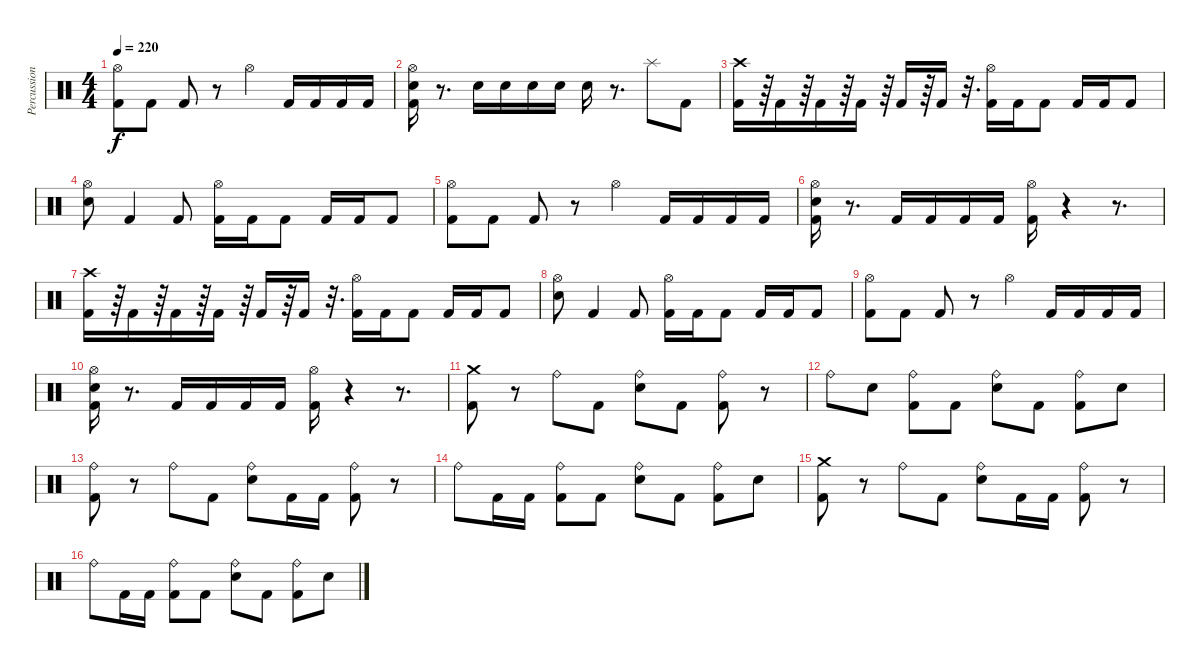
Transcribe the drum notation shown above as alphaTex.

\track ("Percussion (Dan Wilding)" "Percussion") {instrument percussion}
\staff {score}
\articulation defaults
\ts (4 4)
\tempo 220
\clef neutral
\ks c
("Hi-Hat (open)" "Kick (hit) 2").8{dy f} "Kick (hit) 2".8 "Kick (hit) 2".8 r.8 "Hi-Hat (open)".4 "Kick (hit) 2".16 "Kick (hit) 2".16 "Kick (hit) 2".16 "Kick (hit) 2".16 |
("Hi-Hat (open)" "Electric Snare (hit)" "Kick (hit) 2").16 r.8{d} "Electric Snare (hit)".16 "Electric Snare (hit)".16 "Electric Snare (hit)".16 "Electric Snare (hit)".16 "Electric Snare (hit)".16 r.8{d} "Splash (hit)".8 "Kick (hit) 2".8 |
("Crash high (hit)" "Kick (hit) 2").16 r.64 "Kick (hit) 2".16 r.64 "Kick (hit) 2".16 r.64 "Kick (hit) 2".16 r.64 "Kick (hit) 2".16 r.64 "Kick (hit) 2".16 r.32{d} ("Hi-Hat (open)" "Kick (hit) 2").16 "Kick (hit) 2".16 "Kick (hit) 2".8 "Kick (hit) 2".16 "Kick (hit) 2".16 "Kick (hit) 2".8 |
("Hi-Hat (open)" "Electric Snare (hit)").8 "Kick (hit) 2".4 "Kick (hit) 2".8 ("Hi-Hat (open)" "Kick (hit) 2").16 "Kick (hit) 2".16 "Kick (hit) 2".8 "Kick (hit) 2".16 "Kick (hit) 2".16 "Kick (hit) 2".8 |
("Hi-Hat (open)" "Kick (hit) 2").8 "Kick (hit) 2".8 "Kick (hit) 2".8 r.8 "Hi-Hat (open)".4 "Kick (hit) 2".16 "Kick (hit) 2".16 "Kick (hit) 2".16 "Kick (hit) 2".16 |
("Hi-Hat (open)" "Electric Snare (hit)" "Kick (hit) 2").16 r.8{d} "Kick (hit) 2".16 "Kick (hit) 2".16 "Kick (hit) 2".16 "Kick (hit) 2".16 ("Hi-Hat (open)" "Kick (hit) 2").16 r.4 r.8{d} |
("Crash high (hit)" "Kick (hit) 2").16 r.64 "Kick (hit) 2".16 r.64 "Kick (hit) 2".16 r.64 "Kick (hit) 2".16 r.64 "Kick (hit) 2".16 r.64 "Kick (hit) 2".16 r.32{d} ("Hi-Hat (open)" "Kick (hit) 2").16 "Kick (hit) 2".16 "Kick (hit) 2".8 "Kick (hit) 2".16 "Kick (hit) 2".16 "Kick (hit) 2".8 |
("Hi-Hat (open)" "Electric Snare (hit)").8 "Kick (hit) 2".4 "Kick (hit) 2".8 ("Hi-Hat (open)" "Kick (hit) 2").16 "Kick (hit) 2".16 "Kick (hit) 2".8 "Kick (hit) 2".16 "Kick (hit) 2".16 "Kick (hit) 2".8 |
("Hi-Hat (open)" "Kick (hit) 2").8 "Kick (hit) 2".8 "Kick (hit) 2".8 r.8 "Hi-Hat (open)".4 "Kick (hit) 2".16 "Kick (hit) 2".16 "Kick (hit) 2".16 "Kick (hit) 2".16 |
("Hi-Hat (open)" "Electric Snare (hit)" "Kick (hit) 2").16 r.8{d} "Kick (hit) 2".16 "Kick (hit) 2".16 "Kick (hit) 2".16 "Kick (hit) 2".16 ("Hi-Hat (open)" "Kick (hit) 2").16 r.4 r.8{d} |
("Crash medium (hit)" "Kick (hit) 2").8 r.8 "Ride (bell)".8 "Kick (hit) 2".8 ("Ride (bell)" "Electric Snare (hit)").8 "Kick (hit) 2".8 ("Ride (bell)" "Kick (hit) 2").8 r.8 |
"Ride (bell)".8 "Electric Snare (hit)".8 ("Ride (bell)" "Kick (hit) 2").8 "Kick (hit) 2".8 ("Ride (bell)" "Electric Snare (hit)").8 "Kick (hit) 2".8 ("Ride (bell)" "Kick (hit) 2").8 "Electric Snare (hit)".8 |
("Ride (bell)" "Kick (hit) 2").8 r.8 "Ride (bell)".8 "Kick (hit) 2".8 ("Ride (bell)" "Electric Snare (hit)").8 "Kick (hit) 2".16 "Kick (hit) 2".16 ("Ride (bell)" "Kick (hit) 2").8 r.8 |
"Ride (bell)".8 "Kick (hit) 2".16 "Kick (hit) 2".16 ("Ride (bell)" "Kick (hit) 2").8 "Kick (hit) 2".8 ("Ride (bell)" "Electric Snare (hit)").8 "Kick (hit) 2".8 ("Ride (bell)" "Kick (hit) 2").8 "Electric Snare (hit)".8 |
("Crash medium (hit)" "Kick (hit) 2").8 r.8 "Ride (bell)".8 "Kick (hit) 2".8 ("Ride (bell)" "Electric Snare (hit)").8 "Kick (hit) 2".16 "Kick (hit) 2".16 ("Ride (bell)" "Kick (hit) 2").8 r.8 |
"Ride (bell)".8 "Kick (hit) 2".16 "Kick (hit) 2".16 ("Ride (bell)" "Kick (hit) 2").8 "Kick (hit) 2".8 ("Ride (bell)" "Electric Snare (hit)").8 "Kick (hit) 2".8 ("Ride (bell)" "Kick (hit) 2").8 "Electric Snare (hit)".8
